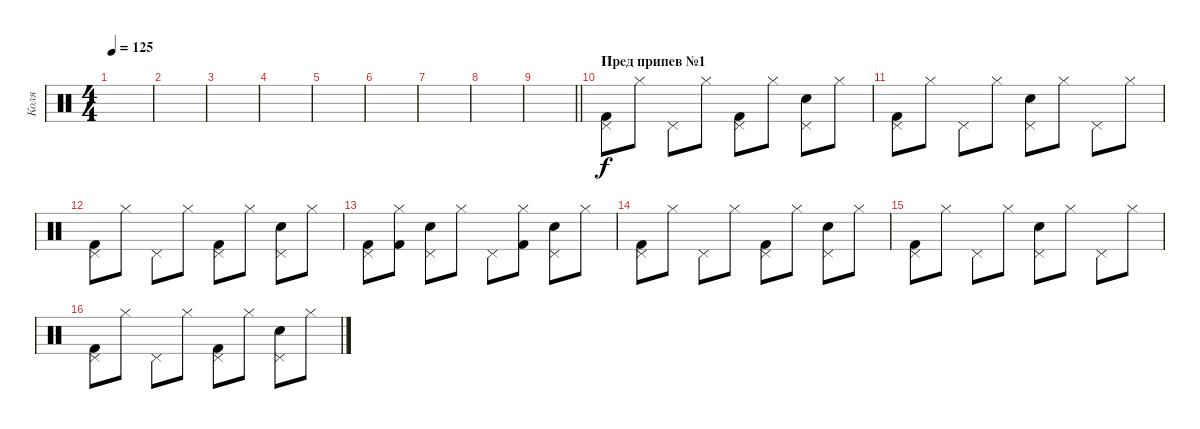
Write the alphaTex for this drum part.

\track ("Коля" "Коля") {instrument percussion}
\staff {score}
\articulation defaults
\ts (4 4)
\tempo 125
\clef neutral
\ks c
|
|
|
|
|
|
|
|
\barLineRight lightlight
|
\section ("" "Пред припев №1")
("Kick (hit) 2" "Pedal Hi-Hat (hit)").8 "Hi-Hat (closed)".8 "Pedal Hi-Hat (hit)".8 "Hi-Hat (closed)".8 ("Kick (hit) 2" "Pedal Hi-Hat (hit)").8 "Hi-Hat (closed)".8 ("Snare (hit) 2" "Pedal Hi-Hat (hit)").8 "Hi-Hat (closed)".8 |
("Kick (hit) 2" "Pedal Hi-Hat (hit)").8 "Hi-Hat (closed)".8 "Pedal Hi-Hat (hit)".8 "Hi-Hat (closed)".8 ("Snare (hit) 2" "Pedal Hi-Hat (hit)").8 "Hi-Hat (closed)".8 "Pedal Hi-Hat (hit)".8 "Hi-Hat (closed)".8 |
("Kick (hit) 2" "Pedal Hi-Hat (hit)").8 "Hi-Hat (closed)".8 "Pedal Hi-Hat (hit)".8 "Hi-Hat (closed)".8 ("Kick (hit) 2" "Pedal Hi-Hat (hit)").8 "Hi-Hat (closed)".8 ("Snare (hit) 2" "Pedal Hi-Hat (hit)").8 "Hi-Hat (closed)".8 |
("Kick (hit) 2" "Pedal Hi-Hat (hit)").8 ("Kick (hit) 2" "Hi-Hat (closed)").8 ("Snare (hit) 2" "Pedal Hi-Hat (hit)").8 "Hi-Hat (closed)".8 "Pedal Hi-Hat (hit)".8 ("Kick (hit) 2" "Hi-Hat (closed)").8 ("Snare (hit) 2" "Pedal Hi-Hat (hit)").8 "Hi-Hat (closed)".8 |
("Kick (hit) 2" "Pedal Hi-Hat (hit)").8 "Hi-Hat (closed)".8 "Pedal Hi-Hat (hit)".8 "Hi-Hat (closed)".8 ("Kick (hit) 2" "Pedal Hi-Hat (hit)").8 "Hi-Hat (closed)".8 ("Snare (hit) 2" "Pedal Hi-Hat (hit)").8 "Hi-Hat (closed)".8 |
("Kick (hit) 2" "Pedal Hi-Hat (hit)").8 "Hi-Hat (closed)".8 "Pedal Hi-Hat (hit)".8 "Hi-Hat (closed)".8 ("Snare (hit) 2" "Pedal Hi-Hat (hit)").8 "Hi-Hat (closed)".8 "Pedal Hi-Hat (hit)".8 "Hi-Hat (closed)".8 |
("Kick (hit) 2" "Pedal Hi-Hat (hit)").8 "Hi-Hat (closed)".8 "Pedal Hi-Hat (hit)".8 "Hi-Hat (closed)".8 ("Kick (hit) 2" "Pedal Hi-Hat (hit)").8 "Hi-Hat (closed)".8 ("Snare (hit) 2" "Pedal Hi-Hat (hit)").8 "Hi-Hat (closed)".8
